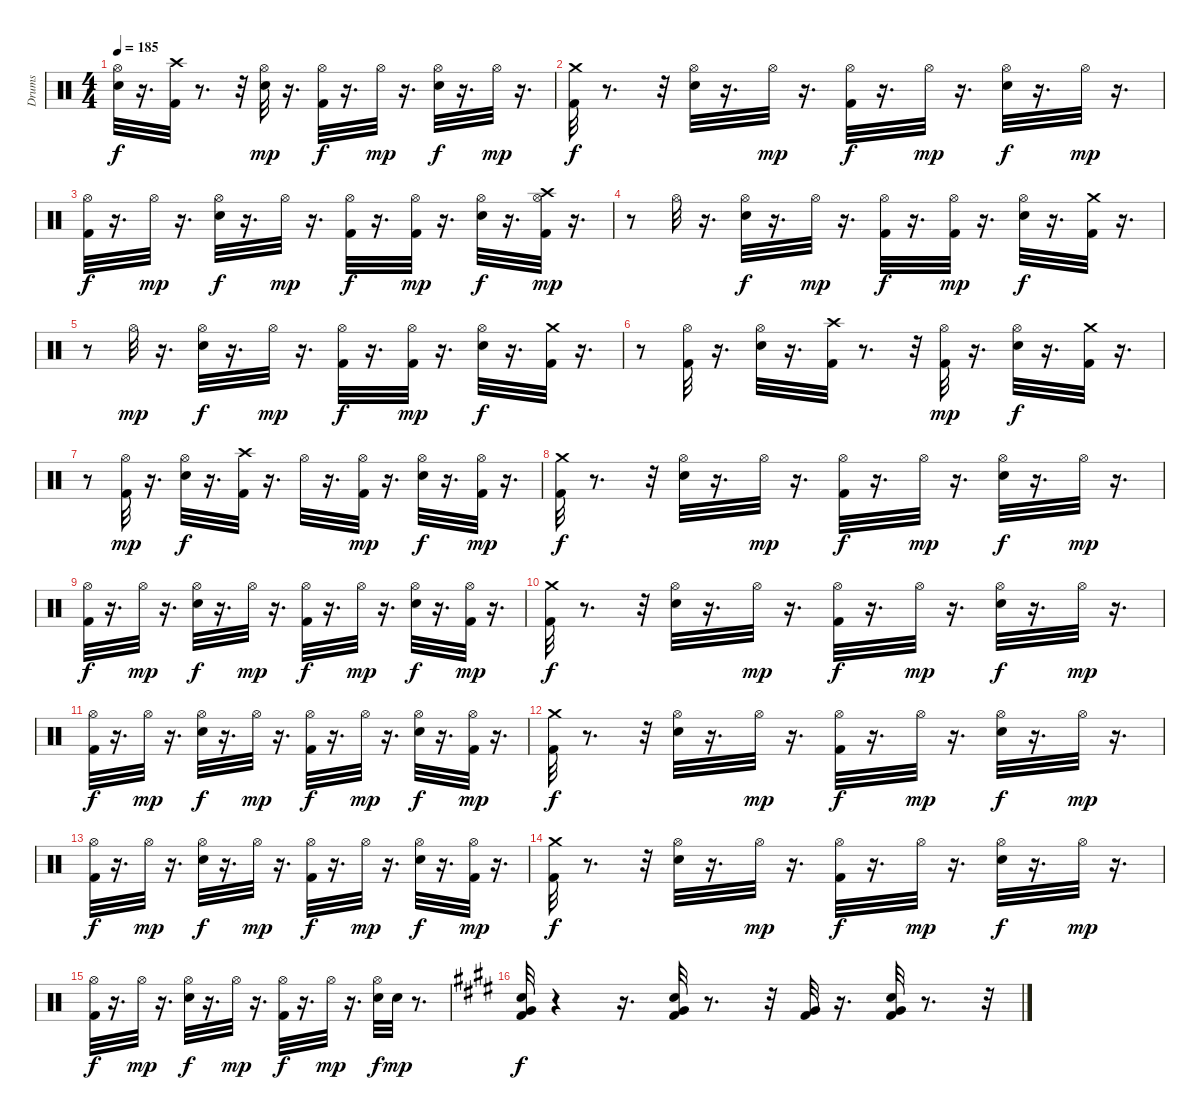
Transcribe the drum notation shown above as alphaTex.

\track ("Drums" "Drums") {instrument percussion}
\staff {score}
\articulation defaults
\ts (4 4)
\tempo 185
\clef neutral
\ks c
("Electric Snare (hit)" "Hi-Hat (open)").32{dy f} r.16{d} ("Crash high (hit)" "Kick (hit) 2").32 r.8{d} r.32 ("Electric Snare (hit)" "Hi-Hat (open)").32{dy mp} r.16{d} ("Kick (hit) 2" "Hi-Hat (open)").32{dy f} r.16{d} "Hi-Hat (open)".32{dy mp} r.16{d} ("Hi-Hat (open)" "Electric Snare (hit)").32{dy f} r.16{d} "Hi-Hat (open)".32{dy mp} r.16{d} |
("Crash medium (hit)" "Kick (hit) 2").32{dy f} r.8{d} r.32 ("Hi-Hat (open)" "Electric Snare (hit)").32 r.16{d} "Hi-Hat (open)".32{dy mp} r.16{d} ("Hi-Hat (open)" "Kick (hit) 2").32{dy f} r.16{d} "Hi-Hat (open)".32{dy mp} r.16{d} ("Hi-Hat (open)" "Electric Snare (hit)").32{dy f} r.16{d} "Hi-Hat (open)".32{dy mp} r.16{d} |
("Hi-Hat (open)" "Kick (hit) 2").32{dy f} r.16{d} "Hi-Hat (open)".32{dy mp} r.16{d} ("Hi-Hat (open)" "Electric Snare (hit)").32{dy f} r.16{d} "Hi-Hat (open)".32{dy mp} r.16{d} ("Hi-Hat (open)" "Kick (hit) 2").32{dy f} r.16{d} ("Kick (hit) 2" "Hi-Hat (open)").32{dy mp} r.16{d} ("Hi-Hat (open)" "Electric Snare (hit)").32{dy f} r.16{d} ("Hi-Hat (open)" "Crash high (hit)" "Kick (hit) 2").32{dy mp} r.16{d} |
r.8 "Hi-Hat (open)".32 r.16{d} ("Hi-Hat (open)" "Electric Snare (hit)").32{dy f} r.16{d} "Hi-Hat (open)".32{dy mp} r.16{d} ("Hi-Hat (open)" "Kick (hit) 2").32{dy f} r.16{d} ("Hi-Hat (open)" "Kick (hit) 2").32{dy mp} r.16{d} ("Hi-Hat (open)" "Electric Snare (hit)").32{dy f} r.16{d} ("Crash medium (hit)" "Kick (hit) 2").32 r.16{d} |
r.8 "Hi-Hat (open)".32{dy mp} r.16{d} ("Hi-Hat (open)" "Electric Snare (hit)").32{dy f} r.16{d} "Hi-Hat (open)".32{dy mp} r.16{d} ("Hi-Hat (open)" "Kick (hit) 2").32{dy f} r.16{d} ("Hi-Hat (open)" "Kick (hit) 2").32{dy mp} r.16{d} ("Hi-Hat (open)" "Electric Snare (hit)").32{dy f} r.16{d} ("Crash medium (hit)" "Kick (hit) 2").32 r.16{d} |
r.8 ("Hi-Hat (open)" "Kick (hit) 2").32 r.16{d} ("Hi-Hat (open)" "Electric Snare (hit)").32 r.16{d} ("Crash high (hit)" "Kick (hit) 2").32 r.8{d} r.32 ("Hi-Hat (open)" "Kick (hit) 2").32{dy mp} r.16{d} ("Hi-Hat (open)" "Electric Snare (hit)").32{dy f} r.16{d} ("Crash medium (hit)" "Kick (hit) 2").32 r.16{d} |
r.8 ("Hi-Hat (open)" "Kick (hit) 2").32{dy mp} r.16{d} ("Hi-Hat (open)" "Electric Snare (hit)").32{dy f} r.16{d} ("Crash high (hit)" "Kick (hit) 2").32 r.16{d} "Hi-Hat (open)".32 r.16{d} ("Hi-Hat (open)" "Kick (hit) 2").32{dy mp} r.16{d} ("Hi-Hat (open)" "Electric Snare (hit)").32{dy f} r.16{d} ("Hi-Hat (open)" "Kick (hit) 2").32{dy mp} r.16{d} |
("Crash medium (hit)" "Kick (hit) 2").32{dy f} r.8{d} r.32 ("Hi-Hat (open)" "Electric Snare (hit)").32 r.16{d} "Hi-Hat (open)".32{dy mp} r.16{d} ("Hi-Hat (open)" "Kick (hit) 2").32{dy f} r.16{d} "Hi-Hat (open)".32{dy mp} r.16{d} ("Hi-Hat (open)" "Electric Snare (hit)").32{dy f} r.16{d} "Hi-Hat (open)".32{dy mp} r.16{d} |
("Hi-Hat (open)" "Kick (hit) 2").32{dy f} r.16{d} "Hi-Hat (open)".32{dy mp} r.16{d} ("Hi-Hat (open)" "Electric Snare (hit)").32{dy f} r.16{d} "Hi-Hat (open)".32{dy mp} r.16{d} ("Hi-Hat (open)" "Kick (hit) 2").32{dy f} r.16{d} "Hi-Hat (open)".32{dy mp} r.16{d} ("Hi-Hat (open)" "Electric Snare (hit)").32{dy f} r.16{d} ("Kick (hit) 2" "Hi-Hat (open)").32{dy mp} r.16{d} |
("Crash medium (hit)" "Kick (hit) 2").32{dy f} r.8{d} r.32 ("Hi-Hat (open)" "Electric Snare (hit)").32 r.16{d} "Hi-Hat (open)".32{dy mp} r.16{d} ("Hi-Hat (open)" "Kick (hit) 2").32{dy f} r.16{d} "Hi-Hat (open)".32{dy mp} r.16{d} ("Hi-Hat (open)" "Electric Snare (hit)").32{dy f} r.16{d} "Hi-Hat (open)".32{dy mp} r.16{d} |
("Hi-Hat (open)" "Kick (hit) 2").32{dy f} r.16{d} "Hi-Hat (open)".32{dy mp} r.16{d} ("Hi-Hat (open)" "Electric Snare (hit)").32{dy f} r.16{d} "Hi-Hat (open)".32{dy mp} r.16{d} ("Hi-Hat (open)" "Kick (hit) 2").32{dy f} r.16{d} "Hi-Hat (open)".32{dy mp} r.16{d} ("Hi-Hat (open)" "Electric Snare (hit)").32{dy f} r.16{d} ("Kick (hit) 2" "Hi-Hat (open)").32{dy mp} r.16{d} |
("Crash medium (hit)" "Kick (hit) 2").32{dy f} r.8{d} r.32 ("Hi-Hat (open)" "Electric Snare (hit)").32 r.16{d} "Hi-Hat (open)".32{dy mp} r.16{d} ("Hi-Hat (open)" "Kick (hit) 2").32{dy f} r.16{d} "Hi-Hat (open)".32{dy mp} r.16{d} ("Hi-Hat (open)" "Electric Snare (hit)").32{dy f} r.16{d} "Hi-Hat (open)".32{dy mp} r.16{d} |
("Hi-Hat (open)" "Kick (hit) 2").32{dy f} r.16{d} "Hi-Hat (open)".32{dy mp} r.16{d} ("Hi-Hat (open)" "Electric Snare (hit)").32{dy f} r.16{d} "Hi-Hat (open)".32{dy mp} r.16{d} ("Hi-Hat (open)" "Kick (hit) 2").32{dy f} r.16{d} "Hi-Hat (open)".32{dy mp} r.16{d} ("Hi-Hat (open)" "Electric Snare (hit)").32{dy f} r.16{d} ("Kick (hit) 2" "Hi-Hat (open)").32{dy mp} r.16{d} |
("Crash medium (hit)" "Kick (hit) 2").32{dy f} r.8{d} r.32 ("Hi-Hat (open)" "Electric Snare (hit)").32 r.16{d} "Hi-Hat (open)".32{dy mp} r.16{d} ("Hi-Hat (open)" "Kick (hit) 2").32{dy f} r.16{d} "Hi-Hat (open)".32{dy mp} r.16{d} ("Hi-Hat (open)" "Electric Snare (hit)").32{dy f} r.16{d} "Hi-Hat (open)".32{dy mp} r.16{d} |
("Hi-Hat (open)" "Kick (hit) 2").32{dy f} r.16{d} "Hi-Hat (open)".32{dy mp} r.16{d} ("Hi-Hat (open)" "Electric Snare (hit)").32{dy f} r.16{d} "Hi-Hat (open)".32{dy mp} r.16{d} ("Hi-Hat (open)" "Kick (hit) 2").32{dy f} r.16{d} "Hi-Hat (open)".32{dy mp} r.16{d} ("Hi-Hat (open)" "Electric Snare (hit)").32{dy f} "Snare (hit) 2".32{dy mp} r.8{d} |
\ks e
("Very Low Tom (hit)" "Electric Snare (hit)" "Kick (hit) 2").32{dy f} r.4 r.16{d} ("Very Low Tom (hit)" "Kick (hit) 2" "Electric Snare (hit)").32 r.8{d} r.32 ("Very Low Tom (hit)" "Kick (hit) 2").32 r.16{d} ("Very Low Tom (hit)" "Kick (hit) 2" "Electric Snare (hit)").32 r.8{d} r.32
